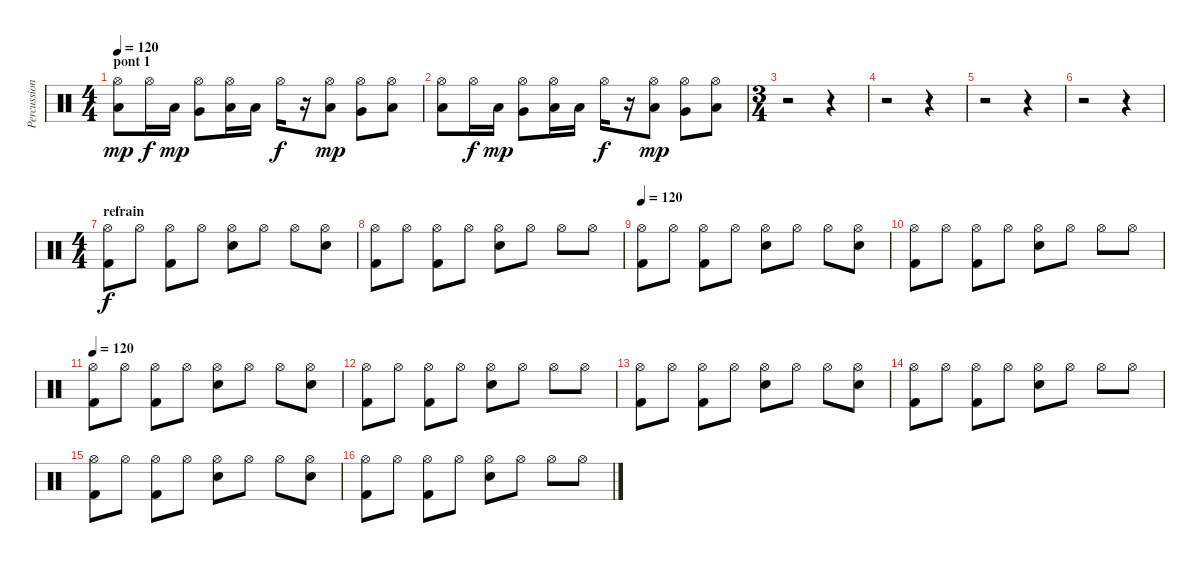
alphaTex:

\track ("Percussions" "Percussion") {instrument percussion}
\staff {score}
\articulation defaults
\ts (4 4)
\section ("" "pont 1")
\tempo 120
\clef neutral
\ks c
("Low Floor Tom (hit)" "Hi-Hat (open)").8{dy mp} "Hi-Hat (open)".16{dy f} "Low Floor Tom (hit)".16{dy mp} ("Very Low Tom (hit)" "Hi-Hat (open)").8 ("Low Floor Tom (hit)" "Hi-Hat (open)").16 "Low Floor Tom (hit)".16 "Hi-Hat (open)".16{dy f} r.16 ("Low Floor Tom (hit)" "Hi-Hat (open)").8{dy mp} ("Very Low Tom (hit)" "Hi-Hat (open)").8 ("Low Floor Tom (hit)" "Hi-Hat (open)").8 |
("Low Floor Tom (hit)" "Hi-Hat (open)").8 "Hi-Hat (open)".16{dy f} "Low Floor Tom (hit)".16{dy mp} ("Very Low Tom (hit)" "Hi-Hat (open)").8 ("Low Floor Tom (hit)" "Hi-Hat (open)").16 "Low Floor Tom (hit)".16 "Hi-Hat (open)".16{dy f} r.16 ("Low Floor Tom (hit)" "Hi-Hat (open)").8{dy mp} ("Very Low Tom (hit)" "Hi-Hat (open)").8 ("Low Floor Tom (hit)" "Hi-Hat (open)").8 |
\ts (3 4)
r.2 r.4 |
r.2 r.4 |
r.2 r.4 |
r.2 r.4 |
\ts (4 4)
\section ("" "refrain")
("Hi-Hat (open)" "Kick (hit) 2").8{dy f} "Hi-Hat (open)".8 ("Hi-Hat (open)" "Kick (hit) 2").8 "Hi-Hat (open)".8 ("Hi-Hat (open)" "Electric Snare (hit)").8 "Hi-Hat (open)".8 "Hi-Hat (open)".8 ("Hi-Hat (open)" "Electric Snare (hit)").8 |
("Hi-Hat (open)" "Kick (hit) 2").8 "Hi-Hat (open)".8 ("Hi-Hat (open)" "Kick (hit) 2").8 "Hi-Hat (open)".8 ("Hi-Hat (open)" "Electric Snare (hit)").8 "Hi-Hat (open)".8 "Hi-Hat (open)".8 "Hi-Hat (open)".8 |
\tempo 120
("Hi-Hat (open)" "Kick (hit) 2").8 "Hi-Hat (open)".8 ("Hi-Hat (open)" "Kick (hit) 2").8 "Hi-Hat (open)".8 ("Hi-Hat (open)" "Electric Snare (hit)").8 "Hi-Hat (open)".8 "Hi-Hat (open)".8 ("Hi-Hat (open)" "Electric Snare (hit)").8 |
("Hi-Hat (open)" "Kick (hit) 2").8 "Hi-Hat (open)".8 ("Hi-Hat (open)" "Kick (hit) 2").8 "Hi-Hat (open)".8 ("Hi-Hat (open)" "Electric Snare (hit)").8 "Hi-Hat (open)".8 "Hi-Hat (open)".8 "Hi-Hat (open)".8 |
\tempo 120
("Hi-Hat (open)" "Kick (hit) 2").8 "Hi-Hat (open)".8 ("Hi-Hat (open)" "Kick (hit) 2").8 "Hi-Hat (open)".8 ("Hi-Hat (open)" "Electric Snare (hit)").8 "Hi-Hat (open)".8 "Hi-Hat (open)".8 ("Hi-Hat (open)" "Electric Snare (hit)").8 |
("Hi-Hat (open)" "Kick (hit) 2").8 "Hi-Hat (open)".8 ("Hi-Hat (open)" "Kick (hit) 2").8 "Hi-Hat (open)".8 ("Hi-Hat (open)" "Electric Snare (hit)").8 "Hi-Hat (open)".8 "Hi-Hat (open)".8 "Hi-Hat (open)".8 |
("Hi-Hat (open)" "Kick (hit) 2").8 "Hi-Hat (open)".8 ("Hi-Hat (open)" "Kick (hit) 2").8 "Hi-Hat (open)".8 ("Hi-Hat (open)" "Electric Snare (hit)").8 "Hi-Hat (open)".8 "Hi-Hat (open)".8 ("Hi-Hat (open)" "Electric Snare (hit)").8 |
("Hi-Hat (open)" "Kick (hit) 2").8 "Hi-Hat (open)".8 ("Hi-Hat (open)" "Kick (hit) 2").8 "Hi-Hat (open)".8 ("Hi-Hat (open)" "Electric Snare (hit)").8 "Hi-Hat (open)".8 "Hi-Hat (open)".8 "Hi-Hat (open)".8 |
("Hi-Hat (open)" "Kick (hit) 2").8 "Hi-Hat (open)".8 ("Hi-Hat (open)" "Kick (hit) 2").8 "Hi-Hat (open)".8 ("Hi-Hat (open)" "Electric Snare (hit)").8 "Hi-Hat (open)".8 "Hi-Hat (open)".8 ("Hi-Hat (open)" "Electric Snare (hit)").8 |
("Hi-Hat (open)" "Kick (hit) 2").8 "Hi-Hat (open)".8 ("Hi-Hat (open)" "Kick (hit) 2").8 "Hi-Hat (open)".8 ("Hi-Hat (open)" "Electric Snare (hit)").8 "Hi-Hat (open)".8 "Hi-Hat (open)".8 "Hi-Hat (open)".8
